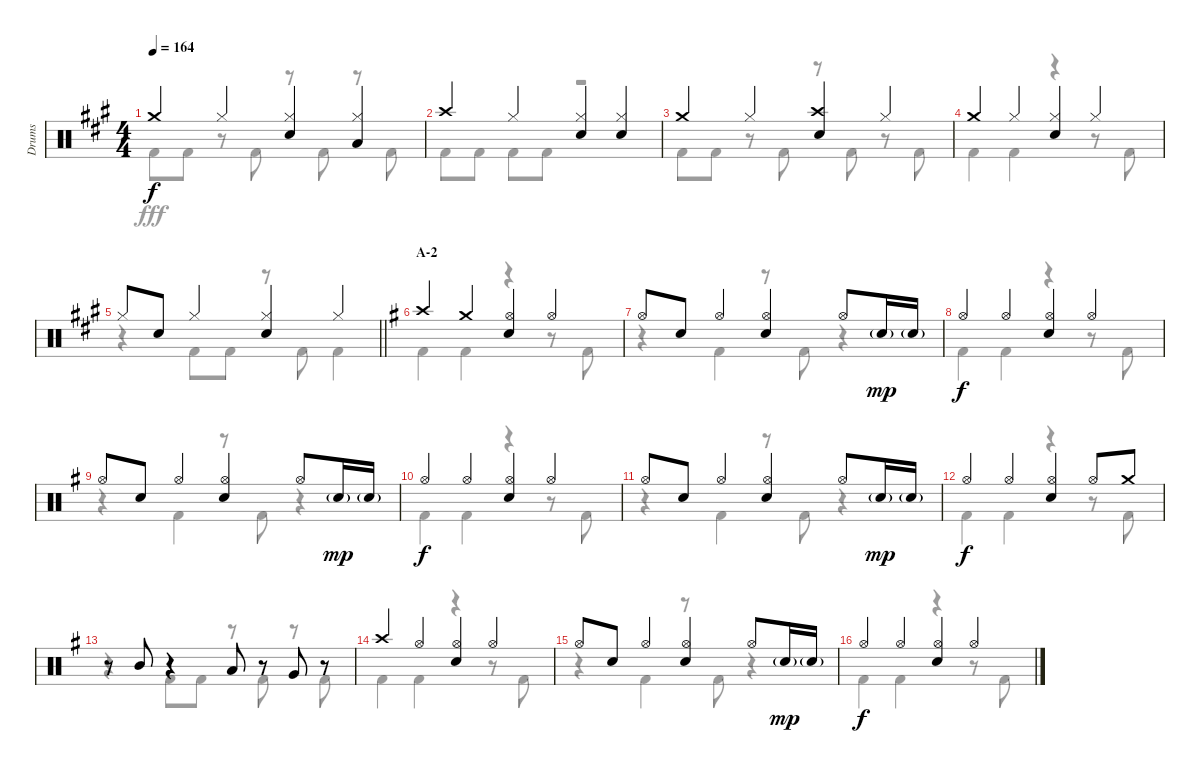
\track ("Drums" "Drums") {instrument percussion}
\staff {score}
\articulation defaults
\voice
\ts (4 4)
\tempo 164
\clef neutral
\ks a "Crash medium (hit)".4{dy f} "Hi-Hat (closed)".4
("Hi-Hat (closed)" "Snare (hit) 2").4 ("Hi-Hat (closed)" "Low Tom (hit)").4 |
"Crash high (hit)".4 "Hi-Hat (closed)".4 ("Hi-Hat (closed)" "Snare (hit) 2").4 ("Hi-Hat (closed)" "Snare (hit) 2").4 |
"Crash medium (hit)".4 "Hi-Hat (closed)".4 ("Crash high (hit)" "Snare (hit) 2").4 "Hi-Hat (closed)".4 |
"Crash medium (hit)".4 "Hi-Hat (closed)".4 ("Hi-Hat (closed)" "Snare (hit) 2").4 "Hi-Hat (closed)".4 |
\barLineRight lightlight "Hi-Hat (closed)".8 "Snare (hit) 2".8 "Hi-Hat (closed)".4
("Hi-Hat (closed)" "Snare (hit) 2").4 "Hi-Hat (closed)".4 |
\section ("" "A-2")
\ks g "Crash high (hit)".4 "Crash medium (hit)".4
("Hi-Hat (open)" "Snare (hit) 2").4 "Hi-Hat (open)".4 |
"Hi-Hat (open)".8 "Snare (hit) 2".8 "Hi-Hat (open)".4 ("Hi-Hat (open)" "Snare (hit) 2").4 "Hi-Hat (open)".8 "Snare (hit) 2"{g}.16{dy mp} "Snare (hit) 2"{g}.16 |
"Hi-Hat (open)".4{dy f} "Hi-Hat (open)".4 ("Hi-Hat (open)" "Snare (hit) 2").4 "Hi-Hat (open)".4 |
"Hi-Hat (open)".8 "Snare (hit) 2".8 "Hi-Hat (open)".4 ("Hi-Hat (open)" "Snare (hit) 2").4 "Hi-Hat (open)".8 "Snare (hit) 2"{g}.16{dy mp} "Snare (hit) 2"{g}.16 |
"Hi-Hat (open)".4{dy f} "Hi-Hat (open)".4 ("Hi-Hat (open)" "Snare (hit) 2").4 "Hi-Hat (open)".4 |
"Hi-Hat (open)".8 "Snare (hit) 2".8 "Hi-Hat (open)".4 ("Hi-Hat (open)" "Snare (hit) 2").4 "Hi-Hat (open)".8 "Snare (hit) 2"{g}.16{dy mp} "Snare (hit) 2"{g}.16 |
"Hi-Hat (open)".4{dy f} "Hi-Hat (open)".4 ("Hi-Hat (open)" "Snare (hit) 2").4 "Hi-Hat (open)".8 "Crash medium (hit)".8 |
r.8 "Mid Tom (hit)".8 r.4 "Low Tom (hit)".8 r.8 "Very Low Tom (hit)".8 r.8 |
"Crash high (hit)".4 "Hi-Hat (open)".4 ("Hi-Hat (open)" "Snare (hit) 2").4 "Hi-Hat (open)".4 |
"Hi-Hat (open)".8 "Snare (hit) 2".8 "Hi-Hat (open)".4 ("Hi-Hat (open)" "Snare (hit) 2").4 "Hi-Hat (open)".8 "Snare (hit) 2"{g}.16{dy mp} "Snare (hit) 2"{g}.16 |
"Hi-Hat (open)".4{dy f} "Hi-Hat (open)".4 ("Hi-Hat (open)" "Snare (hit) 2").4 "Hi-Hat (open)".4
\voice
\clef neutral
\ottava regular
\simile none
\ks a "Kick (hit) 2".8{dy fff} "Kick (hit) 2".8
r.8 "Kick (hit) 2".8 r.8 "Kick (hit) 2".8 r.8 "Kick (hit) 2".8 |
"Kick (hit) 2".8 "Kick (hit) 2".8 "Kick (hit) 2".8 "Kick (hit) 2".8 r.2 |
"Kick (hit) 2".8 "Kick (hit) 2".8 r.8 "Kick (hit) 2".8 r.8 "Kick (hit) 2".8 r.8 "Kick (hit) 2".8 |
"Kick (hit) 2".4 "Kick (hit) 2".4 r.4 r.8 "Kick (hit) 2".8 |
\barLineRight lightlight
r.4 "Kick (hit) 2".8 "Kick (hit) 2".8 r.8 "Kick (hit) 2".8 "Kick (hit) 2".4 |
\ks g "Kick (hit) 2".4 "Kick (hit) 2".4
r.4 r.8 "Kick (hit) 2".8 |
r.4 "Kick (hit) 2".4 r.8 "Kick (hit) 2".8 r.4 |
"Kick (hit) 2".4 "Kick (hit) 2".4 r.4 r.8 "Kick (hit) 2".8 |
r.4 "Kick (hit) 2".4 r.8 "Kick (hit) 2".8 r.4 |
"Kick (hit) 2".4 "Kick (hit) 2".4 r.4 r.8 "Kick (hit) 2".8 |
r.4 "Kick (hit) 2".4 r.8 "Kick (hit) 2".8 r.4 |
"Kick (hit) 2".4 "Kick (hit) 2".4 r.4 r.8 "Kick (hit) 2".8 |
r.4 "Kick (hit) 2".8 "Kick (hit) 2".8 r.8 "Kick (hit) 2".8 r.8 "Kick (hit) 2".8 |
"Kick (hit) 2".4 "Kick (hit) 2".4 r.4 r.8 "Kick (hit) 2".8 |
r.4 "Kick (hit) 2".4 r.8 "Kick (hit) 2".8 r.4 |
"Kick (hit) 2".4 "Kick (hit) 2".4 r.4 r.8 "Kick (hit) 2".8
